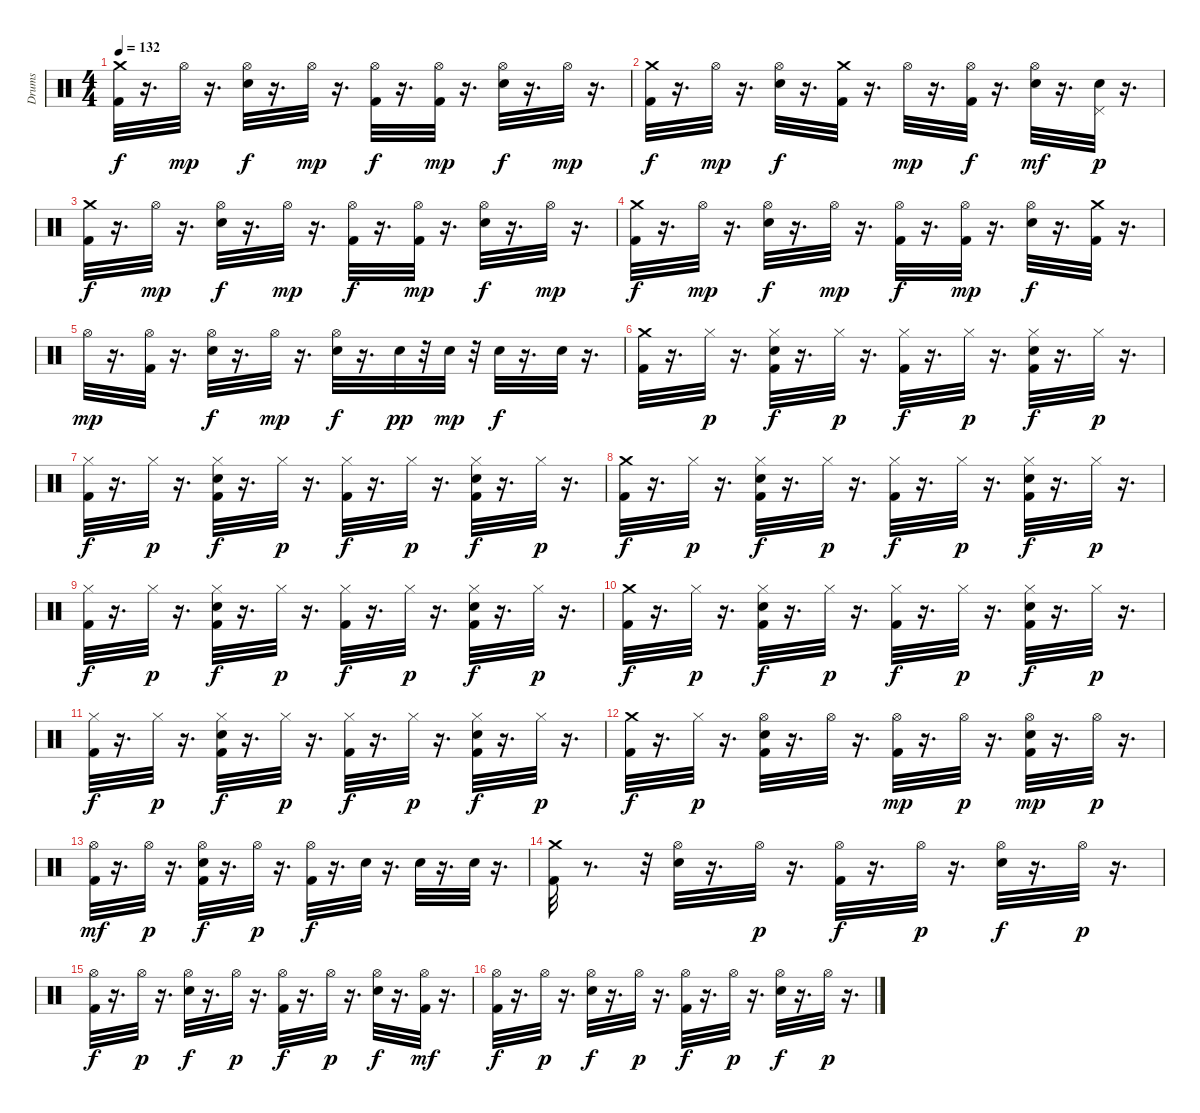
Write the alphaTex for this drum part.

\track ("Drums" "Drums") {instrument percussion}
\staff {score}
\articulation defaults
\ts (4 4)
\tempo 132
\clef neutral
\ks c
("Kick (hit) 2" "Crash medium (hit)").32{dy f} r.16{d} "Hi-Hat (open)".32{dy mp} r.16{d} ("Hi-Hat (open)" "Electric Snare (hit)").32{dy f} r.16{d} "Hi-Hat (open)".32{dy mp} r.16{d} ("Hi-Hat (open)" "Kick (hit) 2").32{dy f} r.16{d} ("Kick (hit) 2" "Hi-Hat (open)").32{dy mp} r.16{d} ("Electric Snare (hit)" "Hi-Hat (open)").32{dy f} r.16{d} "Hi-Hat (open)".32{dy mp} r.16{d} |
("Kick (hit) 2" "Crash medium (hit)").32{dy f} r.16{d} "Hi-Hat (open)".32{dy mp} r.16{d} ("Hi-Hat (open)" "Electric Snare (hit)").32{dy f} r.16{d} ("Crash medium (hit)" "Kick (hit) 2").32 r.16{d} "Hi-Hat (open)".32{dy mp} r.16{d} ("Hi-Hat (open)" "Kick (hit) 2").32{dy f} r.16{d} ("Hi-Hat (open)" "Electric Snare (hit)").32{dy mf} r.16{d} ("Pedal Hi-Hat (hit)" "Electric Snare (hit)").32{dy p} r.16{d} |
("Kick (hit) 2" "Crash medium (hit)").32{dy f} r.16{d} "Hi-Hat (open)".32{dy mp} r.16{d} ("Hi-Hat (open)" "Electric Snare (hit)").32{dy f} r.16{d} "Hi-Hat (open)".32{dy mp} r.16{d} ("Hi-Hat (open)" "Kick (hit) 2").32{dy f} r.16{d} ("Hi-Hat (open)" "Kick (hit) 2").32{dy mp} r.16{d} ("Hi-Hat (open)" "Electric Snare (hit)").32{dy f} r.16{d} "Hi-Hat (open)".32{dy mp} r.16{d} |
("Crash medium (hit)" "Kick (hit) 2").32{dy f} r.16{d} "Hi-Hat (open)".32{dy mp} r.16{d} ("Electric Snare (hit)" "Hi-Hat (open)").32{dy f} r.16{d} "Hi-Hat (open)".32{dy mp} r.16{d} ("Hi-Hat (open)" "Kick (hit) 2").32{dy f} r.16{d} ("Hi-Hat (open)" "Kick (hit) 2").32{dy mp} r.16{d} ("Hi-Hat (open)" "Electric Snare (hit)").32{dy f} r.16{d} ("Crash medium (hit)" "Kick (hit) 2").32 r.16{d} |
"Hi-Hat (open)".32{dy mp} r.16{d} ("Hi-Hat (open)" "Kick (hit) 2").32 r.16{d} ("Hi-Hat (open)" "Electric Snare (hit)").32{dy f} r.16{d} "Hi-Hat (open)".32{dy mp} r.16{d} ("Hi-Hat (open)" "Electric Snare (hit)").32{dy f} r.16{d} "Electric Snare (hit)".32{dy pp} r.32 "Electric Snare (hit)".32{dy mp} r.32 "Electric Snare (hit)".32{dy f} r.16{d} "Electric Snare (hit)".32 r.16{d} |
("Kick (hit) 2" "Crash medium (hit)").32 r.16{d} "Hi-Hat (closed)".32{dy p} r.16{d} ("Hi-Hat (closed)" "Kick (hit) 2" "Hand Clap (hit)").32{dy f} r.16{d} "Hi-Hat (closed)".32{dy p} r.16{d} ("Hi-Hat (closed)" "Kick (hit) 2").32{dy f} r.16{d} "Hi-Hat (closed)".32{dy p} r.16{d} ("Kick (hit) 2" "Hi-Hat (closed)" "Hand Clap (hit)").32{dy f} r.16{d} "Hi-Hat (closed)".32{dy p} r.16{d} |
("Hi-Hat (closed)" "Kick (hit) 2").32{dy f} r.16{d} "Hi-Hat (closed)".32{dy p} r.16{d} ("Kick (hit) 2" "Hi-Hat (closed)" "Hand Clap (hit)").32{dy f} r.16{d} "Hi-Hat (closed)".32{dy p} r.16{d} ("Hi-Hat (closed)" "Kick (hit) 2").32{dy f} r.16{d} "Hi-Hat (closed)".32{dy p} r.16{d} ("Kick (hit) 2" "Hi-Hat (closed)" "Hand Clap (hit)").32{dy f} r.16{d} "Hi-Hat (closed)".32{dy p} r.16{d} |
("Crash medium (hit)" "Kick (hit) 2").32{dy f} r.16{d} "Hi-Hat (closed)".32{dy p} r.16{d} ("Hand Clap (hit)" "Kick (hit) 2" "Hi-Hat (closed)").32{dy f} r.16{d} "Hi-Hat (closed)".32{dy p} r.16{d} ("Kick (hit) 2" "Hi-Hat (closed)").32{dy f} r.16{d} "Hi-Hat (closed)".32{dy p} r.16{d} ("Hi-Hat (closed)" "Hand Clap (hit)" "Kick (hit) 2").32{dy f} r.16{d} "Hi-Hat (closed)".32{dy p} r.16{d} |
("Hi-Hat (closed)" "Kick (hit) 2").32{dy f} r.16{d} "Hi-Hat (closed)".32{dy p} r.16{d} ("Kick (hit) 2" "Hand Clap (hit)" "Hi-Hat (closed)").32{dy f} r.16{d} "Hi-Hat (closed)".32{dy p} r.16{d} ("Hi-Hat (closed)" "Kick (hit) 2").32{dy f} r.16{d} "Hi-Hat (closed)".32{dy p} r.16{d} ("Hand Clap (hit)" "Hi-Hat (closed)" "Kick (hit) 2").32{dy f} r.16{d} "Hi-Hat (closed)".32{dy p} r.16{d} |
("Crash medium (hit)" "Kick (hit) 2").32{dy f} r.16{d} "Hi-Hat (closed)".32{dy p} r.16{d} ("Hand Clap (hit)" "Hi-Hat (closed)" "Kick (hit) 2").32{dy f} r.16{d} "Hi-Hat (closed)".32{dy p} r.16{d} ("Hi-Hat (closed)" "Kick (hit) 2").32{dy f} r.16{d} "Hi-Hat (closed)".32{dy p} r.16{d} ("Hi-Hat (closed)" "Hand Clap (hit)" "Kick (hit) 2").32{dy f} r.16{d} "Hi-Hat (closed)".32{dy p} r.16{d} |
("Kick (hit) 2" "Hi-Hat (closed)").32{dy f} r.16{d} "Hi-Hat (closed)".32{dy p} r.16{d} ("Hand Clap (hit)" "Hi-Hat (closed)" "Kick (hit) 2").32{dy f} r.16{d} "Hi-Hat (closed)".32{dy p} r.16{d} ("Hi-Hat (closed)" "Kick (hit) 2").32{dy f} r.16{d} "Hi-Hat (closed)".32{dy p} r.16{d} ("Hand Clap (hit)" "Kick (hit) 2" "Hi-Hat (closed)").32{dy f} r.16{d} "Hi-Hat (closed)".32{dy p} r.16{d} |
("Crash medium (hit)" "Kick (hit) 2").32{dy f} r.16{d} "Hi-Hat (closed)".32{dy p} r.16{d} ("Kick (hit) 2" "Hand Clap (hit)" "Hi-Hat (open)").32 r.16{d} "Hi-Hat (open)".32 r.16{d} ("Hi-Hat (open)" "Kick (hit) 2").32{dy mp} r.16{d} "Hi-Hat (open)".32{dy p} r.16{d} ("Kick (hit) 2" "Hand Clap (hit)" "Hi-Hat (open)").32{dy mp} r.16{d} "Hi-Hat (open)".32{dy p} r.16{d} |
("Hi-Hat (open)" "Kick (hit) 2").32{dy mf} r.16{d} "Hi-Hat (open)".32{dy p} r.16{d} ("Hi-Hat (open)" "Kick (hit) 2" "Hand Clap (hit)").32{dy f} r.16{d} "Hi-Hat (open)".32{dy p} r.16{d} ("Hi-Hat (open)" "Kick (hit) 2").32{dy f} r.16{d} "Electric Snare (hit)".32 r.16{d} "Electric Snare (hit)".32 r.16{d} "Electric Snare (hit)".32 r.16{d} |
("Kick (hit) 2" "Crash medium (hit)").32 r.8{d} r.32 ("Hi-Hat (open)" "Electric Snare (hit)").32 r.16{d} "Hi-Hat (open)".32{dy p} r.16{d} ("Kick (hit) 2" "Hi-Hat (open)").32{dy f} r.16{d} "Hi-Hat (open)".32{dy p} r.16{d} ("Hi-Hat (open)" "Electric Snare (hit)").32{dy f} r.16{d} "Hi-Hat (open)".32{dy p} r.16{d} |
("Hi-Hat (open)" "Kick (hit) 2").32{dy f} r.16{d} "Hi-Hat (open)".32{dy p} r.16{d} ("Hi-Hat (open)" "Electric Snare (hit)").32{dy f} r.16{d} "Hi-Hat (open)".32{dy p} r.16{d} ("Hi-Hat (open)" "Kick (hit) 2").32{dy f} r.16{d} "Hi-Hat (open)".32{dy p} r.16{d} ("Electric Snare (hit)" "Hi-Hat (open)").32{dy f} r.16{d} ("Hi-Hat (open)" "Kick (hit) 2").32{dy mf} r.16{d} |
("Kick (hit) 2" "Hi-Hat (open)").32{dy f} r.16{d} "Hi-Hat (open)".32{dy p} r.16{d} ("Hi-Hat (open)" "Electric Snare (hit)").32{dy f} r.16{d} "Hi-Hat (open)".32{dy p} r.16{d} ("Hi-Hat (open)" "Kick (hit) 2").32{dy f} r.16{d} "Hi-Hat (open)".32{dy p} r.16{d} ("Electric Snare (hit)" "Hi-Hat (open)").32{dy f} r.16{d} "Hi-Hat (open)".32{dy p} r.16{d}
